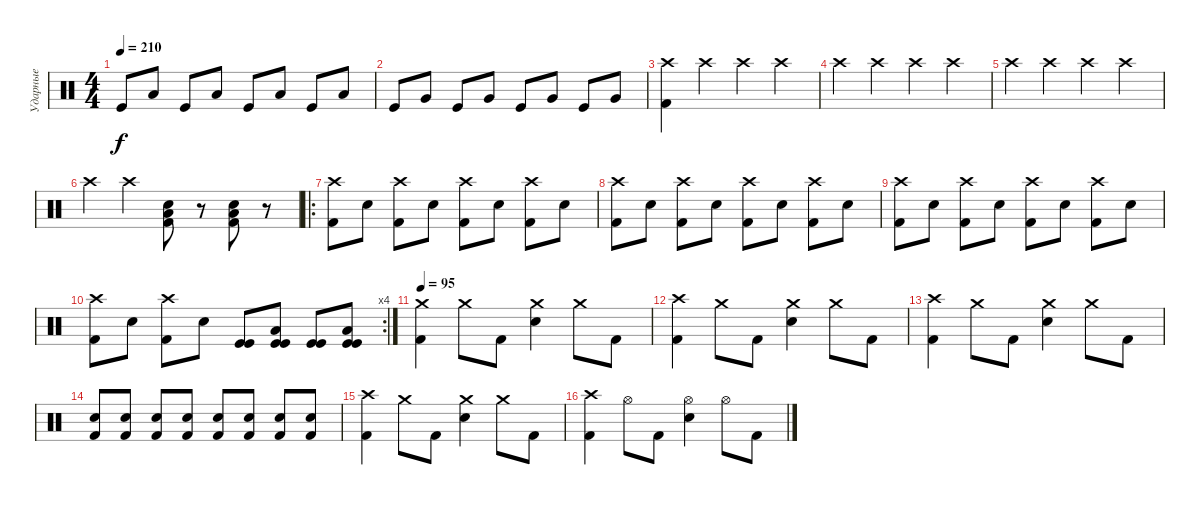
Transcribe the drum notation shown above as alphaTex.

\track ("Ударные" "Ударные") {instrument percussion}
\staff {score}
\articulation defaults
\ts (4 4)
\tempo 210
\clef neutral
\ks c "Kick (hit)".8{dy f} "Low Tom (hit)".8 "Kick (hit)".8 "Low Tom (hit)".8 "Kick (hit)".8 "Low Tom (hit)".8 "Kick (hit)".8 "Low Tom (hit)".8
|
"Kick (hit)".8 "Very Low Tom (hit)".8 "Kick (hit)".8 "Very Low Tom (hit)".8 "Kick (hit)".8 "Very Low Tom (hit)".8 "Kick (hit)".8 "Very Low Tom (hit)".8 |
("Crash high (hit)" "Kick (hit) 2").4 "Crash high (hit)".4 "Crash high (hit)".4 "Crash high (hit)".4 |
"Crash high (hit)".4 "Crash high (hit)".4 "Crash high (hit)".4 "Crash high (hit)".4 |
"Crash high (hit)".4 "Crash high (hit)".4 "Crash high (hit)".4 "Crash high (hit)".4 |
"Crash high (hit)".4 "Crash high (hit)".4 ("Low Tom (hit)" "Snare (hit) 2" "Kick (hit) 2").8 r.8 ("Low Tom (hit)" "Snare (hit) 2" "Kick (hit) 2").8 r.8 |
\ro
("Crash high (hit)" "Kick (hit) 2").8 "Snare (hit) 2".8 ("Crash high (hit)" "Kick (hit) 2").8 "Snare (hit) 2".8 ("Crash high (hit)" "Kick (hit) 2").8 "Snare (hit) 2".8 ("Crash high (hit)" "Kick (hit) 2").8 "Snare (hit) 2".8 |
("Crash high (hit)" "Kick (hit) 2").8 "Snare (hit) 2".8 ("Crash high (hit)" "Kick (hit) 2").8 "Snare (hit) 2".8 ("Crash high (hit)" "Kick (hit) 2").8 "Snare (hit) 2".8 ("Crash high (hit)" "Kick (hit) 2").8 "Snare (hit) 2".8 |
("Crash high (hit)" "Kick (hit) 2").8 "Snare (hit) 2".8 ("Crash high (hit)" "Kick (hit) 2").8 "Snare (hit) 2".8 ("Crash high (hit)" "Kick (hit) 2").8 "Snare (hit) 2".8 ("Crash high (hit)" "Kick (hit) 2").8 "Snare (hit) 2".8 |
\rc 4
("Crash high (hit)" "Kick (hit) 2").8 "Snare (hit) 2".8 ("Crash high (hit)" "Kick (hit) 2").8 "Snare (hit) 2".8 ("Kick (hit)" "Kick (hit)").8 ("Low Tom (hit)" "Kick (hit)" "Kick (hit)").8 ("Kick (hit)" "Kick (hit)").8 ("Low Tom (hit)" "Kick (hit)" "Kick (hit)").8 |
\tempo 95
("Crash medium (hit)" "Kick (hit) 2").4 "Crash medium (hit)".8 "Kick (hit) 2".8 ("Crash medium (hit)" "Snare (hit) 2").4 "Crash medium (hit)".8 "Kick (hit) 2".8 |
("Crash high (hit)" "Kick (hit) 2").4 "Crash medium (hit)".8 "Kick (hit) 2".8 ("Crash medium (hit)" "Snare (hit) 2").4 "Crash medium (hit)".8 "Kick (hit) 2".8 |
("Crash high (hit)" "Kick (hit) 2").4 "Crash medium (hit)".8 "Kick (hit) 2".8 ("Crash medium (hit)" "Snare (hit) 2").4 "Crash medium (hit)".8 "Kick (hit) 2".8 |
("Snare (hit) 2" "Kick (hit) 2").8 ("Snare (hit) 2" "Kick (hit) 2").8 ("Snare (hit) 2" "Kick (hit) 2").8 ("Snare (hit) 2" "Kick (hit) 2").8 ("Snare (hit) 2" "Kick (hit) 2").8 ("Snare (hit) 2" "Kick (hit) 2").8 ("Snare (hit) 2" "Kick (hit) 2").8 ("Snare (hit) 2" "Kick (hit) 2").8 |
("Crash high (hit)" "Kick (hit) 2").4 "Crash medium (hit)".8 "Kick (hit) 2".8 ("Crash medium (hit)" "Snare (hit) 2").4 "Crash medium (hit)".8 "Kick (hit) 2".8 |
("Crash high (hit)" "Kick (hit) 2").4 "Hi-Hat (open)".8 "Kick (hit) 2".8 ("Hi-Hat (open)" "Snare (hit) 2").4 "Hi-Hat (open)".8 "Kick (hit) 2".8
